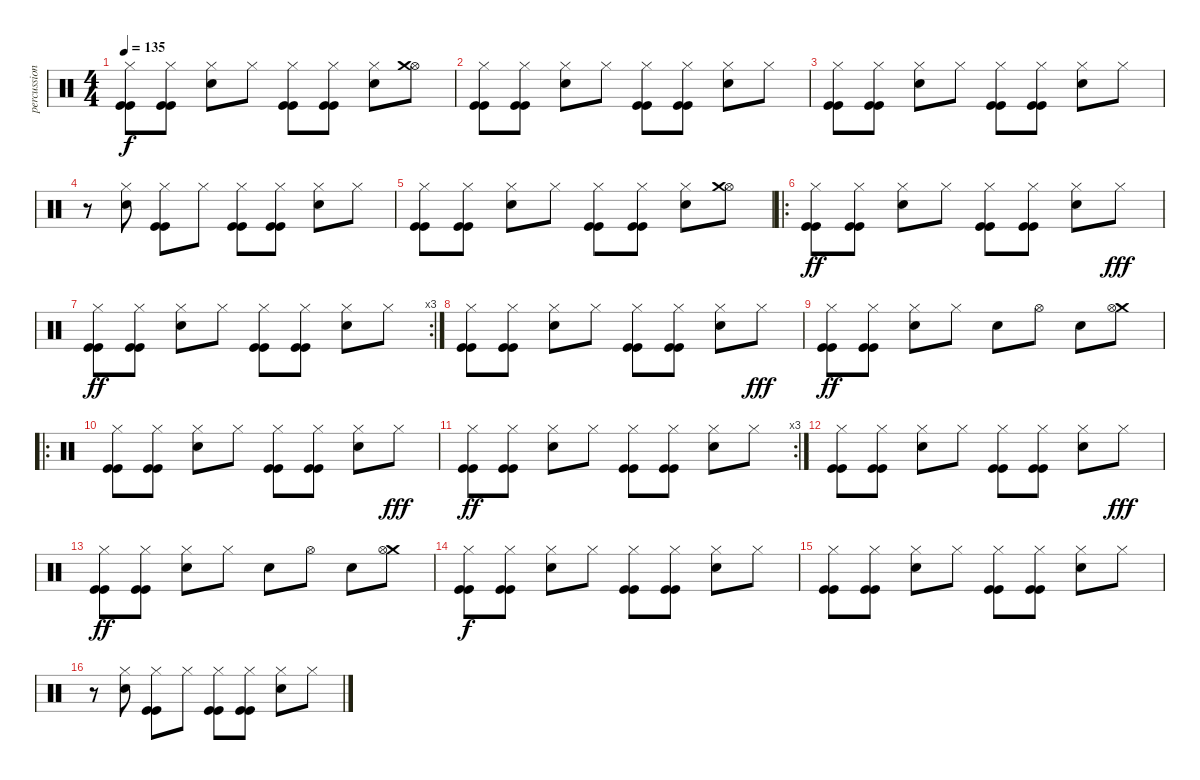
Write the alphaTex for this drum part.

\track ("percussions" "percussion") {instrument percussion}
\staff {score}
\articulation defaults
\ts (4 4)
\tempo 135
\clef neutral
\ks c
("Hi-Hat (closed)" "Kick (hit)" "Kick (hit)").8{dy f} ("Hi-Hat (closed)" "Kick (hit)" "Kick (hit)").8 ("Hi-Hat (closed)" "Electric Snare (hit)").8 "Hi-Hat (closed)".8 ("Hi-Hat (closed)" "Kick (hit)" "Kick (hit)").8 ("Hi-Hat (closed)" "Kick (hit)" "Kick (hit)").8 ("Hi-Hat (closed)" "Electric Snare (hit)").8 ("Hi-Hat (open)" "Crash medium (hit)").8 |
("Hi-Hat (closed)" "Kick (hit)" "Kick (hit)").8 ("Hi-Hat (closed)" "Kick (hit)" "Kick (hit)").8 ("Hi-Hat (closed)" "Electric Snare (hit)").8 "Hi-Hat (closed)".8 ("Hi-Hat (closed)" "Kick (hit)" "Kick (hit)").8 ("Hi-Hat (closed)" "Kick (hit)" "Kick (hit)").8 ("Hi-Hat (closed)" "Electric Snare (hit)").8 "Hi-Hat (closed)".8 |
("Hi-Hat (closed)" "Kick (hit)" "Kick (hit)").8 ("Hi-Hat (closed)" "Kick (hit)" "Kick (hit)").8 ("Hi-Hat (closed)" "Electric Snare (hit)").8 "Hi-Hat (closed)".8 ("Hi-Hat (closed)" "Kick (hit)" "Kick (hit)").8 ("Hi-Hat (closed)" "Kick (hit)" "Kick (hit)").8 ("Hi-Hat (closed)" "Electric Snare (hit)").8 "Hi-Hat (closed)".8 |
r.8 ("Hi-Hat (closed)" "Electric Snare (hit)").8 ("Hi-Hat (closed)" "Kick (hit)" "Kick (hit)").8 "Hi-Hat (closed)".8 ("Hi-Hat (closed)" "Kick (hit)" "Kick (hit)").8 ("Hi-Hat (closed)" "Kick (hit)" "Kick (hit)").8 ("Hi-Hat (closed)" "Electric Snare (hit)").8 "Hi-Hat (closed)".8 |
("Hi-Hat (closed)" "Kick (hit)" "Kick (hit)").8 ("Hi-Hat (closed)" "Kick (hit)" "Kick (hit)").8 ("Hi-Hat (closed)" "Electric Snare (hit)").8 "Hi-Hat (closed)".8 ("Hi-Hat (closed)" "Kick (hit)" "Kick (hit)").8 ("Hi-Hat (closed)" "Kick (hit)" "Kick (hit)").8 ("Hi-Hat (closed)" "Electric Snare (hit)").8 ("Hi-Hat (open)" "Crash medium (hit)").8 |
\ro
("Hi-Hat (closed)" "Kick (hit)" "Kick (hit)").8{dy ff} ("Hi-Hat (closed)" "Kick (hit)" "Kick (hit)").8 ("Hi-Hat (closed)" "Electric Snare (hit)").8 "Hi-Hat (closed)".8 ("Hi-Hat (closed)" "Kick (hit)" "Kick (hit)").8 ("Hi-Hat (closed)" "Kick (hit)" "Kick (hit)").8 ("Hi-Hat (closed)" "Electric Snare (hit)").8 "Hi-Hat (closed)".8{dy fff} |
\rc 3
("Hi-Hat (closed)" "Kick (hit)" "Kick (hit)").8{dy ff} ("Hi-Hat (closed)" "Kick (hit)" "Kick (hit)").8 ("Hi-Hat (closed)" "Electric Snare (hit)").8 "Hi-Hat (closed)".8 ("Hi-Hat (closed)" "Kick (hit)" "Kick (hit)").8 ("Hi-Hat (closed)" "Kick (hit)" "Kick (hit)").8 ("Hi-Hat (closed)" "Electric Snare (hit)").8 "Hi-Hat (closed)".8 |
("Hi-Hat (closed)" "Kick (hit)" "Kick (hit)").8 ("Hi-Hat (closed)" "Kick (hit)" "Kick (hit)").8 ("Hi-Hat (closed)" "Electric Snare (hit)").8 "Hi-Hat (closed)".8 ("Hi-Hat (closed)" "Kick (hit)" "Kick (hit)").8 ("Hi-Hat (closed)" "Kick (hit)" "Kick (hit)").8 ("Hi-Hat (closed)" "Electric Snare (hit)").8 "Hi-Hat (closed)".8{dy fff} |
("Hi-Hat (closed)" "Kick (hit)" "Kick (hit)").8{dy ff} ("Hi-Hat (closed)" "Kick (hit)" "Kick (hit)").8 ("Hi-Hat (closed)" "Electric Snare (hit)").8 "Hi-Hat (closed)".8 "Electric Snare (hit)".8 "Hi-Hat (open)".8 "Electric Snare (hit)".8 ("Crash medium (hit)" "Hi-Hat (open)").8 |
\ro
("Hi-Hat (closed)" "Kick (hit)" "Kick (hit)").8 ("Hi-Hat (closed)" "Kick (hit)" "Kick (hit)").8 ("Hi-Hat (closed)" "Electric Snare (hit)").8 "Hi-Hat (closed)".8 ("Hi-Hat (closed)" "Kick (hit)" "Kick (hit)").8 ("Hi-Hat (closed)" "Kick (hit)" "Kick (hit)").8 ("Hi-Hat (closed)" "Electric Snare (hit)").8 "Hi-Hat (closed)".8{dy fff} |
\rc 3
("Hi-Hat (closed)" "Kick (hit)" "Kick (hit)").8{dy ff} ("Hi-Hat (closed)" "Kick (hit)" "Kick (hit)").8 ("Hi-Hat (closed)" "Electric Snare (hit)").8 "Hi-Hat (closed)".8 ("Hi-Hat (closed)" "Kick (hit)" "Kick (hit)").8 ("Hi-Hat (closed)" "Kick (hit)" "Kick (hit)").8 ("Hi-Hat (closed)" "Electric Snare (hit)").8 "Hi-Hat (closed)".8 |
("Hi-Hat (closed)" "Kick (hit)" "Kick (hit)").8 ("Hi-Hat (closed)" "Kick (hit)" "Kick (hit)").8 ("Hi-Hat (closed)" "Electric Snare (hit)").8 "Hi-Hat (closed)".8 ("Hi-Hat (closed)" "Kick (hit)" "Kick (hit)").8 ("Hi-Hat (closed)" "Kick (hit)" "Kick (hit)").8 ("Hi-Hat (closed)" "Electric Snare (hit)").8 "Hi-Hat (closed)".8{dy fff} |
("Hi-Hat (closed)" "Kick (hit)" "Kick (hit)").8{dy ff} ("Hi-Hat (closed)" "Kick (hit)" "Kick (hit)").8 ("Hi-Hat (closed)" "Electric Snare (hit)").8 "Hi-Hat (closed)".8 "Electric Snare (hit)".8 "Hi-Hat (open)".8 "Electric Snare (hit)".8 ("Crash medium (hit)" "Hi-Hat (open)").8 |
("Hi-Hat (closed)" "Kick (hit)" "Kick (hit)").8{dy f} ("Hi-Hat (closed)" "Kick (hit)" "Kick (hit)").8 ("Hi-Hat (closed)" "Electric Snare (hit)").8 "Hi-Hat (closed)".8 ("Hi-Hat (closed)" "Kick (hit)" "Kick (hit)").8 ("Hi-Hat (closed)" "Kick (hit)" "Kick (hit)").8 ("Hi-Hat (closed)" "Electric Snare (hit)").8 "Hi-Hat (closed)".8 |
("Hi-Hat (closed)" "Kick (hit)" "Kick (hit)").8 ("Hi-Hat (closed)" "Kick (hit)" "Kick (hit)").8 ("Hi-Hat (closed)" "Electric Snare (hit)").8 "Hi-Hat (closed)".8 ("Hi-Hat (closed)" "Kick (hit)" "Kick (hit)").8 ("Hi-Hat (closed)" "Kick (hit)" "Kick (hit)").8 ("Hi-Hat (closed)" "Electric Snare (hit)").8 "Hi-Hat (closed)".8 |
r.8 ("Hi-Hat (closed)" "Electric Snare (hit)").8 ("Hi-Hat (closed)" "Kick (hit)" "Kick (hit)").8 "Hi-Hat (closed)".8 ("Hi-Hat (closed)" "Kick (hit)" "Kick (hit)").8 ("Hi-Hat (closed)" "Kick (hit)" "Kick (hit)").8 ("Hi-Hat (closed)" "Electric Snare (hit)").8 "Hi-Hat (closed)".8
